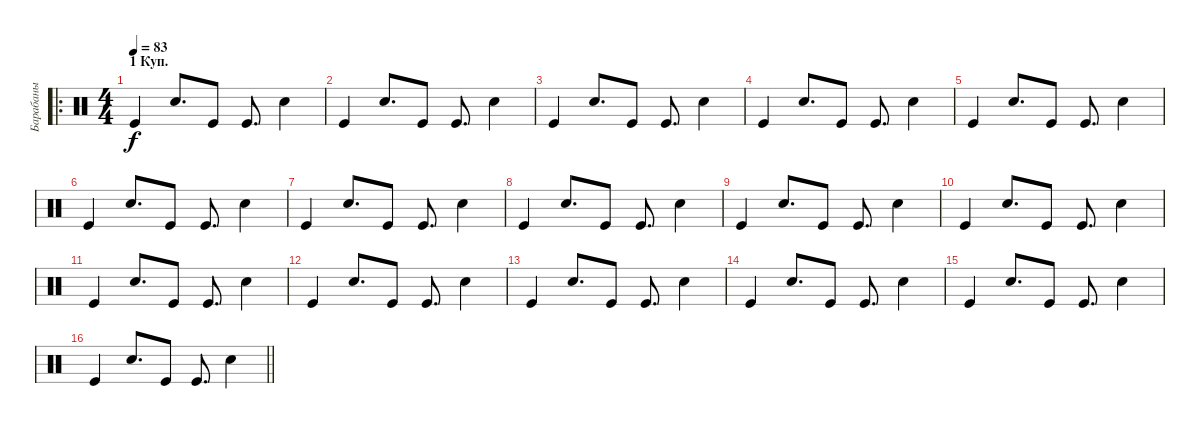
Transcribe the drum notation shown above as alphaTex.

\track ("Барабаны" "Барабаны") {instrument percussion}
\staff {score}
\articulation defaults
\ro
\ts (4 4)
\section ("" "1 Куп.")
\tempo 83
\clef neutral
\ks c "Kick (hit)".4{dy f} "Snare (hit) 2".8{d} "Kick (hit)".8 "Kick (hit)".8{d} "Snare (hit) 2".4
|
"Kick (hit)".4 "Snare (hit) 2".8{d} "Kick (hit)".8 "Kick (hit)".8{d} "Snare (hit) 2".4 |
"Kick (hit)".4 "Snare (hit) 2".8{d} "Kick (hit)".8 "Kick (hit)".8{d} "Snare (hit) 2".4 |
"Kick (hit)".4 "Snare (hit) 2".8{d} "Kick (hit)".8 "Kick (hit)".8{d} "Snare (hit) 2".4 |
"Kick (hit)".4 "Snare (hit) 2".8{d} "Kick (hit)".8 "Kick (hit)".8{d} "Snare (hit) 2".4 |
"Kick (hit)".4 "Snare (hit) 2".8{d} "Kick (hit)".8 "Kick (hit)".8{d} "Snare (hit) 2".4 |
"Kick (hit)".4 "Snare (hit) 2".8{d} "Kick (hit)".8 "Kick (hit)".8{d} "Snare (hit) 2".4 |
"Kick (hit)".4 "Snare (hit) 2".8{d} "Kick (hit)".8 "Kick (hit)".8{d} "Snare (hit) 2".4 |
"Kick (hit)".4 "Snare (hit) 2".8{d} "Kick (hit)".8 "Kick (hit)".8{d} "Snare (hit) 2".4 |
"Kick (hit)".4 "Snare (hit) 2".8{d} "Kick (hit)".8 "Kick (hit)".8{d} "Snare (hit) 2".4 |
"Kick (hit)".4 "Snare (hit) 2".8{d} "Kick (hit)".8 "Kick (hit)".8{d} "Snare (hit) 2".4 |
"Kick (hit)".4 "Snare (hit) 2".8{d} "Kick (hit)".8 "Kick (hit)".8{d} "Snare (hit) 2".4 |
"Kick (hit)".4 "Snare (hit) 2".8{d} "Kick (hit)".8 "Kick (hit)".8{d} "Snare (hit) 2".4 |
"Kick (hit)".4 "Snare (hit) 2".8{d} "Kick (hit)".8 "Kick (hit)".8{d} "Snare (hit) 2".4 |
"Kick (hit)".4 "Snare (hit) 2".8{d} "Kick (hit)".8 "Kick (hit)".8{d} "Snare (hit) 2".4 |
\barLineRight lightlight "Kick (hit)".4 "Snare (hit) 2".8{d} "Kick (hit)".8 "Kick (hit)".8{d} "Snare (hit) 2".4
